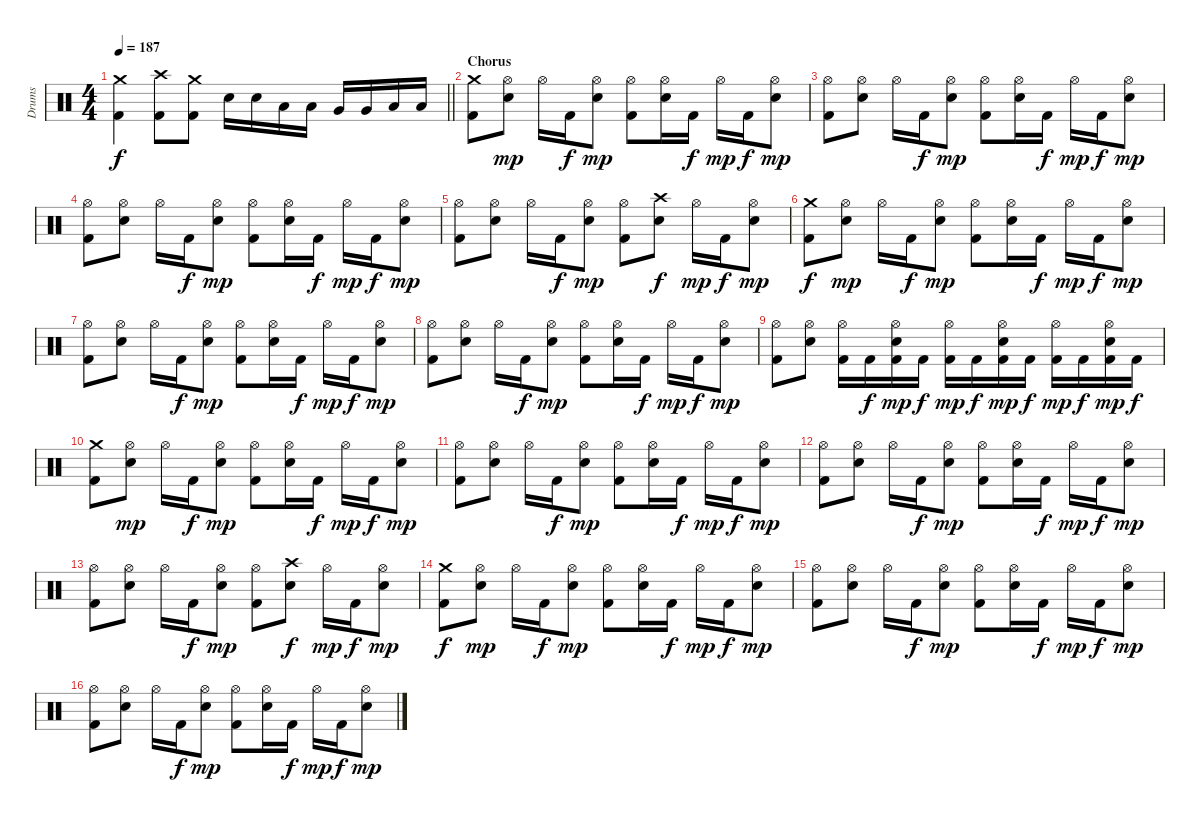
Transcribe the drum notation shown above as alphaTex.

\track ("Drums" "Drums") {instrument percussion}
\staff {score}
\articulation defaults
\ts (4 4)
\tempo 187
\clef neutral
\barLineRight lightlight
\ks c
("Crash medium (hit)" "Kick (hit) 2").4{dy f} ("Crash high (hit)" "Kick (hit) 2").8 ("Crash medium (hit)" "Kick (hit) 2").8 "Snare (hit) 2".16 "Snare (hit) 2".16 "Low Tom (hit)".16 "Low Tom (hit)".16 "Very Low Tom (hit)".16 "Very Low Tom (hit)".16 "Low Floor Tom (hit)".16 "Low Floor Tom (hit)".16 |
\section ("" "Chorus")
("Crash medium (hit)" "Kick (hit) 2").8 ("Hi-Hat (open)" "Snare (hit) 2").8{dy mp} "Hi-Hat (open)".16 "Kick (hit) 2".16{dy f} ("Hi-Hat (open)" "Snare (hit) 2").8{dy mp} ("Hi-Hat (open)" "Kick (hit) 2").8 ("Hi-Hat (open)" "Snare (hit) 2").16 "Kick (hit) 2".16{dy f} "Hi-Hat (open)".16{dy mp} "Kick (hit) 2".16{dy f} ("Hi-Hat (open)" "Snare (hit) 2").8{dy mp} |
("Hi-Hat (open)" "Kick (hit) 2").8 ("Hi-Hat (open)" "Snare (hit) 2").8 "Hi-Hat (open)".16 "Kick (hit) 2".16{dy f} ("Hi-Hat (open)" "Snare (hit) 2").8{dy mp} ("Hi-Hat (open)" "Kick (hit) 2").8 ("Hi-Hat (open)" "Snare (hit) 2").16 "Kick (hit) 2".16{dy f} "Hi-Hat (open)".16{dy mp} "Kick (hit) 2".16{dy f} ("Hi-Hat (open)" "Snare (hit) 2").8{dy mp} |
("Hi-Hat (open)" "Kick (hit) 2").8 ("Hi-Hat (open)" "Snare (hit) 2").8 "Hi-Hat (open)".16 "Kick (hit) 2".16{dy f} ("Hi-Hat (open)" "Snare (hit) 2").8{dy mp} ("Hi-Hat (open)" "Kick (hit) 2").8 ("Hi-Hat (open)" "Snare (hit) 2").16 "Kick (hit) 2".16{dy f} "Hi-Hat (open)".16{dy mp} "Kick (hit) 2".16{dy f} ("Hi-Hat (open)" "Snare (hit) 2").8{dy mp} |
("Hi-Hat (open)" "Kick (hit) 2").8 ("Hi-Hat (open)" "Snare (hit) 2").8 "Hi-Hat (open)".16 "Kick (hit) 2".16{dy f} ("Hi-Hat (open)" "Snare (hit) 2").8{dy mp} ("Hi-Hat (open)" "Kick (hit) 2").8 ("Crash high (hit)" "Snare (hit) 2").8{dy f} "Hi-Hat (open)".16{dy mp} "Kick (hit) 2".16{dy f} ("Hi-Hat (open)" "Snare (hit) 2").8{dy mp} |
("Crash medium (hit)" "Kick (hit) 2").8{dy f} ("Hi-Hat (open)" "Snare (hit) 2").8{dy mp} "Hi-Hat (open)".16 "Kick (hit) 2".16{dy f} ("Hi-Hat (open)" "Snare (hit) 2").8{dy mp} ("Hi-Hat (open)" "Kick (hit) 2").8 ("Hi-Hat (open)" "Snare (hit) 2").16 "Kick (hit) 2".16{dy f} "Hi-Hat (open)".16{dy mp} "Kick (hit) 2".16{dy f} ("Hi-Hat (open)" "Snare (hit) 2").8{dy mp} |
("Hi-Hat (open)" "Kick (hit) 2").8 ("Hi-Hat (open)" "Snare (hit) 2").8 "Hi-Hat (open)".16 "Kick (hit) 2".16{dy f} ("Hi-Hat (open)" "Snare (hit) 2").8{dy mp} ("Hi-Hat (open)" "Kick (hit) 2").8 ("Hi-Hat (open)" "Snare (hit) 2").16 "Kick (hit) 2".16{dy f} "Hi-Hat (open)".16{dy mp} "Kick (hit) 2".16{dy f} ("Hi-Hat (open)" "Snare (hit) 2").8{dy mp} |
("Hi-Hat (open)" "Kick (hit) 2").8 ("Hi-Hat (open)" "Snare (hit) 2").8 "Hi-Hat (open)".16 "Kick (hit) 2".16{dy f} ("Hi-Hat (open)" "Snare (hit) 2").8{dy mp} ("Hi-Hat (open)" "Kick (hit) 2").8 ("Hi-Hat (open)" "Snare (hit) 2").16 "Kick (hit) 2".16{dy f} "Hi-Hat (open)".16{dy mp} "Kick (hit) 2".16{dy f} ("Hi-Hat (open)" "Snare (hit) 2").8{dy mp} |
("Hi-Hat (open)" "Kick (hit) 2").8 ("Hi-Hat (open)" "Snare (hit) 2").8 ("Hi-Hat (open)" "Kick (hit) 2").16 "Kick (hit) 2".16{dy f} ("Hi-Hat (open)" "Snare (hit) 2" "Kick (hit) 2").16{dy mp} "Kick (hit) 2".16{dy f} ("Hi-Hat (open)" "Kick (hit) 2").16{dy mp} "Kick (hit) 2".16{dy f} ("Hi-Hat (open)" "Snare (hit) 2" "Kick (hit) 2").16{dy mp} "Kick (hit) 2".16{dy f} ("Hi-Hat (open)" "Kick (hit) 2").16{dy mp} "Kick (hit) 2".16{dy f} ("Hi-Hat (open)" "Snare (hit) 2" "Kick (hit) 2").16{dy mp} "Kick (hit) 2".16{dy f} |
("Crash medium (hit)" "Kick (hit) 2").8 ("Hi-Hat (open)" "Snare (hit) 2").8{dy mp} "Hi-Hat (open)".16 "Kick (hit) 2".16{dy f} ("Hi-Hat (open)" "Snare (hit) 2").8{dy mp} ("Hi-Hat (open)" "Kick (hit) 2").8 ("Hi-Hat (open)" "Snare (hit) 2").16 "Kick (hit) 2".16{dy f} "Hi-Hat (open)".16{dy mp} "Kick (hit) 2".16{dy f} ("Hi-Hat (open)" "Snare (hit) 2").8{dy mp} |
("Hi-Hat (open)" "Kick (hit) 2").8 ("Hi-Hat (open)" "Snare (hit) 2").8 "Hi-Hat (open)".16 "Kick (hit) 2".16{dy f} ("Hi-Hat (open)" "Snare (hit) 2").8{dy mp} ("Hi-Hat (open)" "Kick (hit) 2").8 ("Hi-Hat (open)" "Snare (hit) 2").16 "Kick (hit) 2".16{dy f} "Hi-Hat (open)".16{dy mp} "Kick (hit) 2".16{dy f} ("Hi-Hat (open)" "Snare (hit) 2").8{dy mp} |
("Hi-Hat (open)" "Kick (hit) 2").8 ("Hi-Hat (open)" "Snare (hit) 2").8 "Hi-Hat (open)".16 "Kick (hit) 2".16{dy f} ("Hi-Hat (open)" "Snare (hit) 2").8{dy mp} ("Hi-Hat (open)" "Kick (hit) 2").8 ("Hi-Hat (open)" "Snare (hit) 2").16 "Kick (hit) 2".16{dy f} "Hi-Hat (open)".16{dy mp} "Kick (hit) 2".16{dy f} ("Hi-Hat (open)" "Snare (hit) 2").8{dy mp} |
("Hi-Hat (open)" "Kick (hit) 2").8 ("Hi-Hat (open)" "Snare (hit) 2").8 "Hi-Hat (open)".16 "Kick (hit) 2".16{dy f} ("Hi-Hat (open)" "Snare (hit) 2").8{dy mp} ("Hi-Hat (open)" "Kick (hit) 2").8 ("Crash high (hit)" "Snare (hit) 2").8{dy f} "Hi-Hat (open)".16{dy mp} "Kick (hit) 2".16{dy f} ("Hi-Hat (open)" "Snare (hit) 2").8{dy mp} |
("Crash medium (hit)" "Kick (hit) 2").8{dy f} ("Hi-Hat (open)" "Snare (hit) 2").8{dy mp} "Hi-Hat (open)".16 "Kick (hit) 2".16{dy f} ("Hi-Hat (open)" "Snare (hit) 2").8{dy mp} ("Hi-Hat (open)" "Kick (hit) 2").8 ("Hi-Hat (open)" "Snare (hit) 2").16 "Kick (hit) 2".16{dy f} "Hi-Hat (open)".16{dy mp} "Kick (hit) 2".16{dy f} ("Hi-Hat (open)" "Snare (hit) 2").8{dy mp} |
("Hi-Hat (open)" "Kick (hit) 2").8 ("Hi-Hat (open)" "Snare (hit) 2").8 "Hi-Hat (open)".16 "Kick (hit) 2".16{dy f} ("Hi-Hat (open)" "Snare (hit) 2").8{dy mp} ("Hi-Hat (open)" "Kick (hit) 2").8 ("Hi-Hat (open)" "Snare (hit) 2").16 "Kick (hit) 2".16{dy f} "Hi-Hat (open)".16{dy mp} "Kick (hit) 2".16{dy f} ("Hi-Hat (open)" "Snare (hit) 2").8{dy mp} |
("Hi-Hat (open)" "Kick (hit) 2").8 ("Hi-Hat (open)" "Snare (hit) 2").8 "Hi-Hat (open)".16 "Kick (hit) 2".16{dy f} ("Hi-Hat (open)" "Snare (hit) 2").8{dy mp} ("Hi-Hat (open)" "Kick (hit) 2").8 ("Hi-Hat (open)" "Snare (hit) 2").16 "Kick (hit) 2".16{dy f} "Hi-Hat (open)".16{dy mp} "Kick (hit) 2".16{dy f} ("Hi-Hat (open)" "Snare (hit) 2").8{dy mp}
